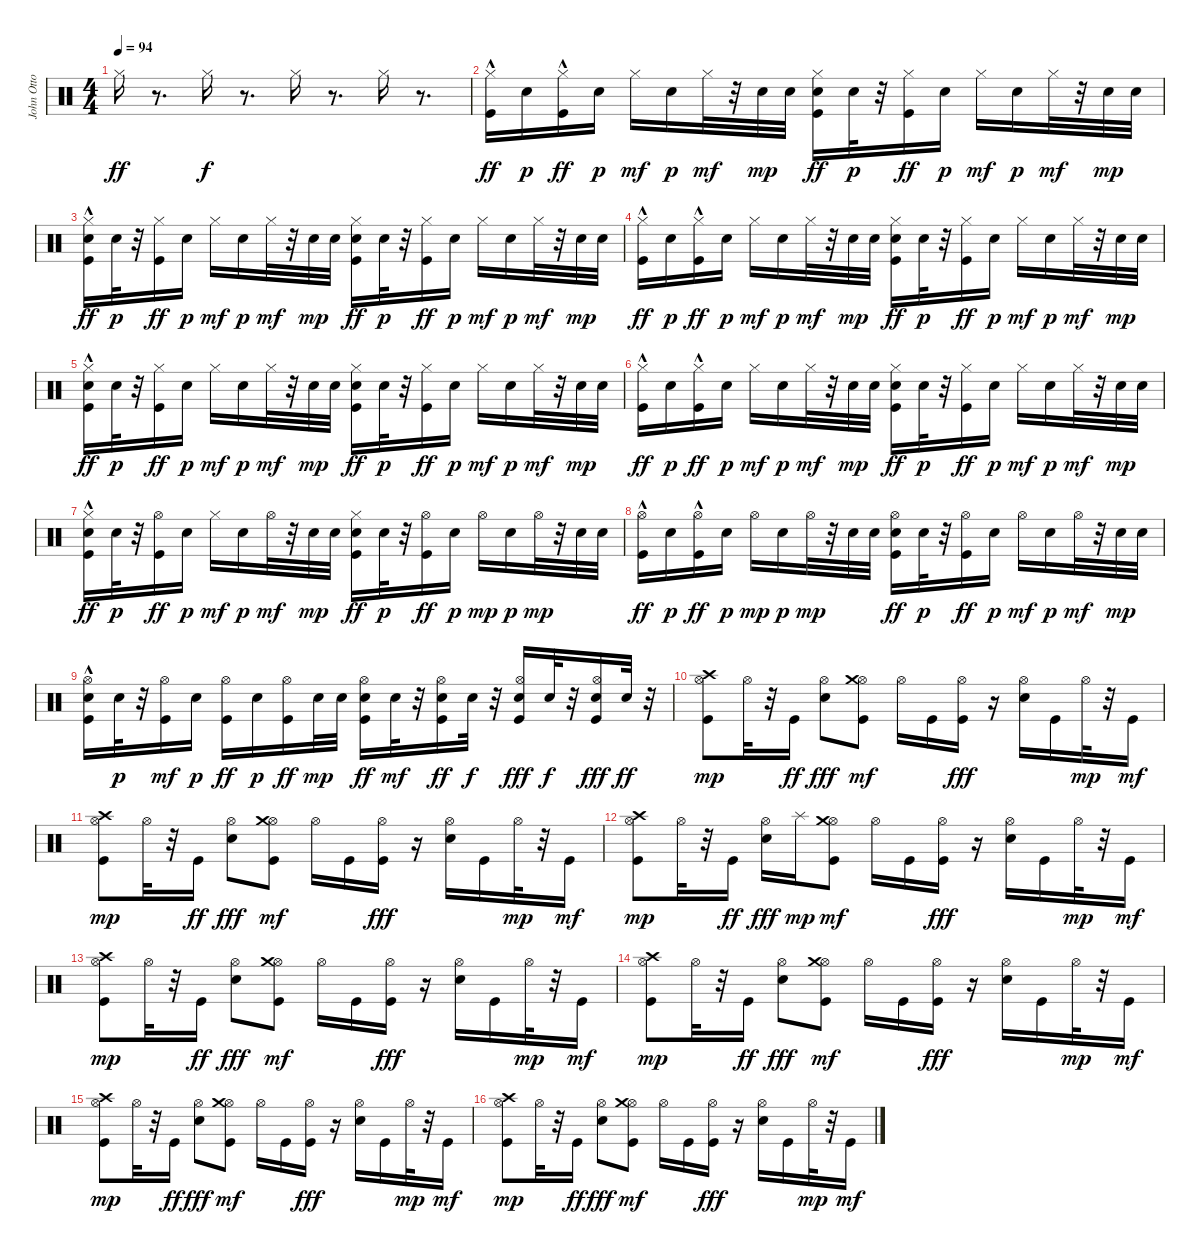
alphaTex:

\track ("John Otto" "John Otto") {instrument percussion}
\staff {score}
\articulation defaults
\ts (4 4)
\tempo 94
\clef neutral
\ks c "Hi-Hat (closed)".16{dy ff}
r.8{d} "Hi-Hat (closed)".16{dy f} r.8{d} "Hi-Hat (closed)".16{balance 8} r.8{d} "Hi-Hat (closed)".16 r.8{d} |
("Hi-Hat (closed)"{hac} "Kick (hit)").16{dy ff} "Snare (hit) 2".16{dy p} ("Hi-Hat (closed)" "Kick (hit)"{hac}).16{dy ff} "Snare (hit) 2".16{dy p} "Hi-Hat (closed)".16{dy mf} "Snare (hit) 2".16{dy p} "Hi-Hat (closed)".32{dy mf} r.32 "Snare (hit) 2".32{dy mp} "Snare (hit) 2".32 ("Hi-Hat (closed)" "Snare (hit) 2" "Kick (hit)").16{dy ff} "Snare (hit) 2".32{dy p} r.32 ("Hi-Hat (closed)" "Kick (hit)").16{dy ff} "Snare (hit) 2".16{dy p} "Hi-Hat (closed)".16{dy mf} "Snare (hit) 2".16{dy p} "Hi-Hat (closed)".32{dy mf} r.32 "Snare (hit) 2".32{dy mp} "Snare (hit) 2".32 |
("Hi-Hat (closed)"{hac} "Snare (hit) 2" "Kick (hit)").16{dy ff} "Snare (hit) 2".32{dy p} r.32 ("Hi-Hat (closed)" "Kick (hit)").16{dy ff} "Snare (hit) 2".16{dy p} "Hi-Hat (closed)".16{dy mf} "Snare (hit) 2".16{dy p} "Hi-Hat (closed)".32{dy mf} r.32 "Snare (hit) 2".32{dy mp} "Snare (hit) 2".32 ("Hi-Hat (closed)" "Snare (hit) 2" "Kick (hit)").16{dy ff} "Snare (hit) 2".32{dy p} r.32 ("Hi-Hat (closed)" "Kick (hit)").16{dy ff} "Snare (hit) 2".16{dy p} "Hi-Hat (closed)".16{dy mf} "Snare (hit) 2".16{dy p} "Hi-Hat (closed)".32{dy mf} r.32 "Snare (hit) 2".32{dy mp} "Snare (hit) 2".32 |
("Hi-Hat (closed)"{hac} "Kick (hit)").16{dy ff} "Snare (hit) 2".16{dy p} ("Hi-Hat (closed)" "Kick (hit)"{hac}).16{dy ff} "Snare (hit) 2".16{dy p} "Hi-Hat (closed)".16{dy mf} "Snare (hit) 2".16{dy p} "Hi-Hat (closed)".32{dy mf} r.32 "Snare (hit) 2".32{dy mp} "Snare (hit) 2".32 ("Hi-Hat (closed)" "Snare (hit) 2" "Kick (hit)").16{dy ff} "Snare (hit) 2".32{dy p} r.32 ("Hi-Hat (closed)" "Kick (hit)").16{dy ff} "Snare (hit) 2".16{dy p} "Hi-Hat (closed)".16{dy mf} "Snare (hit) 2".16{dy p} "Hi-Hat (closed)".32{dy mf} r.32 "Snare (hit) 2".32{dy mp} "Snare (hit) 2".32 |
("Hi-Hat (closed)"{hac} "Snare (hit) 2" "Kick (hit)").16{dy ff} "Snare (hit) 2".32{dy p} r.32 ("Hi-Hat (closed)" "Kick (hit)").16{dy ff} "Snare (hit) 2".16{dy p} "Hi-Hat (closed)".16{dy mf} "Snare (hit) 2".16{dy p} "Hi-Hat (closed)".32{dy mf} r.32 "Snare (hit) 2".32{dy mp} "Snare (hit) 2".32 ("Hi-Hat (closed)" "Snare (hit) 2" "Kick (hit)").16{dy ff} "Snare (hit) 2".32{dy p} r.32 ("Hi-Hat (closed)" "Kick (hit)").16{dy ff} "Snare (hit) 2".16{dy p} "Hi-Hat (closed)".16{dy mf} "Snare (hit) 2".16{dy p} "Hi-Hat (closed)".32{dy mf} r.32 "Snare (hit) 2".32{dy mp} "Snare (hit) 2".32 |
("Hi-Hat (closed)"{hac} "Kick (hit)").16{dy ff} "Snare (hit) 2".16{dy p} ("Hi-Hat (closed)" "Kick (hit)"{hac}).16{dy ff} "Snare (hit) 2".16{dy p} "Hi-Hat (closed)".16{dy mf} "Snare (hit) 2".16{dy p} "Hi-Hat (closed)".32{dy mf} r.32 "Snare (hit) 2".32{dy mp} "Snare (hit) 2".32 ("Hi-Hat (closed)" "Snare (hit) 2" "Kick (hit)").16{dy ff} "Snare (hit) 2".32{dy p} r.32 ("Hi-Hat (closed)" "Kick (hit)").16{dy ff} "Snare (hit) 2".16{dy p} "Hi-Hat (closed)".16{dy mf} "Snare (hit) 2".16{dy p} "Hi-Hat (closed)".32{dy mf} r.32 "Snare (hit) 2".32{dy mp} "Snare (hit) 2".32 |
("Hi-Hat (closed)"{hac} "Snare (hit) 2" "Kick (hit)").16{dy ff} "Snare (hit) 2".32{dy p} r.32 ("Hi-Hat (open)" "Kick (hit)").16{dy ff} "Snare (hit) 2".16{dy p} "Hi-Hat (closed)".16{dy mf} "Snare (hit) 2".16{dy p} "Hi-Hat (open)".32{dy mf} r.32 "Snare (hit) 2".32{dy mp} "Snare (hit) 2".32 ("Hi-Hat (closed)" "Snare (hit) 2" "Kick (hit)").16{dy ff} "Snare (hit) 2".32{dy p} r.32 ("Hi-Hat (open)" "Kick (hit)").16{dy ff} "Snare (hit) 2".16{dy p} "Hi-Hat (open)".16{dy mp} "Snare (hit) 2".16{dy p} "Hi-Hat (open)".32{dy mp} r.32 "Snare (hit) 2".32 "Snare (hit) 2".32 |
("Hi-Hat (open)"{hac} "Kick (hit)").16{dy ff} "Snare (hit) 2".16{dy p} ("Hi-Hat (open)" "Kick (hit)"{hac}).16{dy ff} "Snare (hit) 2".16{dy p} "Hi-Hat (open)".16{dy mp} "Snare (hit) 2".16{dy p} "Hi-Hat (open)".32{dy mp} r.32 "Snare (hit) 2".32 "Snare (hit) 2".32 ("Hi-Hat (open)" "Snare (hit) 2" "Kick (hit)").16{dy ff} "Snare (hit) 2".32{dy p} r.32 ("Hi-Hat (open)" "Kick (hit)").16{dy ff} "Snare (hit) 2".16{dy p} "Hi-Hat (open)".16{dy mf} "Snare (hit) 2".16{dy p} "Hi-Hat (open)".32{dy mf} r.32 "Snare (hit) 2".32{dy mp} "Snare (hit) 2".32 |
("Hi-Hat (open)"{hac} "Snare (hit) 2" "Kick (hit)").16 "Snare (hit) 2".32{dy p} r.32 ("Hi-Hat (open)" "Kick (hit)").16{dy mf} "Snare (hit) 2".16{dy p} ("Hi-Hat (open)" "Kick (hit)").16{dy ff} "Snare (hit) 2".16{dy p} ("Hi-Hat (open)" "Kick (hit)").16{dy ff} "Snare (hit) 2".32{dy mp} "Snare (hit) 2".32 ("Hi-Hat (open)" "Snare (hit) 2" "Kick (hit)").16{dy ff} "Electric Snare (hit)".32{dy mf} r.32 ("Hi-Hat (open)" "Electric Snare (hit)" "Kick (hit)").16{dy ff} "Electric Snare (hit)".32{dy f} r.32 ("Hi-Hat (open)" "Electric Snare (hit)" "Kick (hit)").16{dy fff} "Electric Snare (hit)".32{dy f} r.32 ("Hi-Hat (open)" "Electric Snare (hit)" "Kick (hit)").16{dy fff} "Electric Snare (hit)".32{dy ff} r.32 |
("Hi-Hat (open)" "Kick (hit)" "Crash high (hit)").8{dy mp} "Hi-Hat (open)".32 r.32 "Kick (hit)".16{dy ff} ("Hi-Hat (open)" "Electric Snare (hit)").8{dy fff} ("Hi-Hat (open)" "Kick (hit)" "Crash medium (hit)").8{dy mf} "Hi-Hat (open)".16 "Kick (hit)".16 ("Hi-Hat (open)" "Kick (hit)").16{dy fff} r.16 ("Hi-Hat (open)" "Electric Snare (hit)").16 "Kick (hit)".16 "Hi-Hat (open)".32{dy mp} r.32 "Kick (hit)".16{dy mf} |
("Hi-Hat (open)" "Kick (hit)" "Crash high (hit)").8{dy mp} "Hi-Hat (open)".32 r.32 "Kick (hit)".16{dy ff} ("Hi-Hat (open)" "Electric Snare (hit)").8{dy fff} ("Hi-Hat (open)" "Kick (hit)" "Crash medium (hit)").8{dy mf} "Hi-Hat (open)".16 "Kick (hit)".16 ("Hi-Hat (open)" "Kick (hit)").16{dy fff} r.16 ("Hi-Hat (open)" "Electric Snare (hit)").16 "Kick (hit)".16 "Hi-Hat (open)".32{dy mp} r.32 "Kick (hit)".16{dy mf} |
("Hi-Hat (open)" "Kick (hit)" "Crash high (hit)").8{dy mp} "Hi-Hat (open)".32 r.32 "Kick (hit)".16{dy ff} ("Hi-Hat (open)" "Electric Snare (hit)").16{dy fff} "Splash (hit)".16{dy mp} ("Hi-Hat (open)" "Kick (hit)" "Crash medium (hit)").8{dy mf} "Hi-Hat (open)".16 "Kick (hit)".16 ("Hi-Hat (open)" "Kick (hit)").16{dy fff} r.16 ("Hi-Hat (open)" "Electric Snare (hit)").16 "Kick (hit)".16 "Hi-Hat (open)".32{dy mp} r.32 "Kick (hit)".16{dy mf} |
("Hi-Hat (open)" "Kick (hit)" "Crash high (hit)").8{dy mp} "Hi-Hat (open)".32 r.32 "Kick (hit)".16{dy ff} ("Hi-Hat (open)" "Electric Snare (hit)").8{dy fff} ("Hi-Hat (open)" "Kick (hit)" "Crash medium (hit)").8{dy mf} "Hi-Hat (open)".16 "Kick (hit)".16 ("Hi-Hat (open)" "Kick (hit)").16{dy fff} r.16 ("Hi-Hat (open)" "Electric Snare (hit)").16 "Kick (hit)".16 "Hi-Hat (open)".32{dy mp} r.32 "Kick (hit)".16{dy mf} |
("Hi-Hat (open)" "Kick (hit)" "Crash high (hit)").8{dy mp} "Hi-Hat (open)".32 r.32 "Kick (hit)".16{dy ff} ("Hi-Hat (open)" "Electric Snare (hit)").8{dy fff} ("Hi-Hat (open)" "Kick (hit)" "Crash medium (hit)").8{dy mf} "Hi-Hat (open)".16 "Kick (hit)".16 ("Hi-Hat (open)" "Kick (hit)").16{dy fff} r.16 ("Hi-Hat (open)" "Electric Snare (hit)").16 "Kick (hit)".16 "Hi-Hat (open)".32{dy mp} r.32 "Kick (hit)".16{dy mf} |
("Hi-Hat (open)" "Kick (hit)" "Crash high (hit)").8{dy mp} "Hi-Hat (open)".32 r.32 "Kick (hit)".16{dy ff} ("Hi-Hat (open)" "Electric Snare (hit)").8{dy fff} ("Hi-Hat (open)" "Kick (hit)" "Crash medium (hit)").8{dy mf} "Hi-Hat (open)".16 "Kick (hit)".16 ("Hi-Hat (open)" "Kick (hit)").16{dy fff} r.16 ("Hi-Hat (open)" "Electric Snare (hit)").16 "Kick (hit)".16 "Hi-Hat (open)".32{dy mp} r.32 "Kick (hit)".16{dy mf} |
("Hi-Hat (open)" "Kick (hit)" "Crash high (hit)").8{dy mp} "Hi-Hat (open)".32 r.32 "Kick (hit)".16{dy ff} ("Hi-Hat (open)" "Electric Snare (hit)").8{dy fff} ("Hi-Hat (open)" "Kick (hit)" "Crash medium (hit)").8{dy mf} "Hi-Hat (open)".16 "Kick (hit)".16 ("Hi-Hat (open)" "Kick (hit)").16{dy fff} r.16 ("Hi-Hat (open)" "Electric Snare (hit)").16 "Kick (hit)".16 "Hi-Hat (open)".32{dy mp} r.32 "Kick (hit)".16{dy mf}
